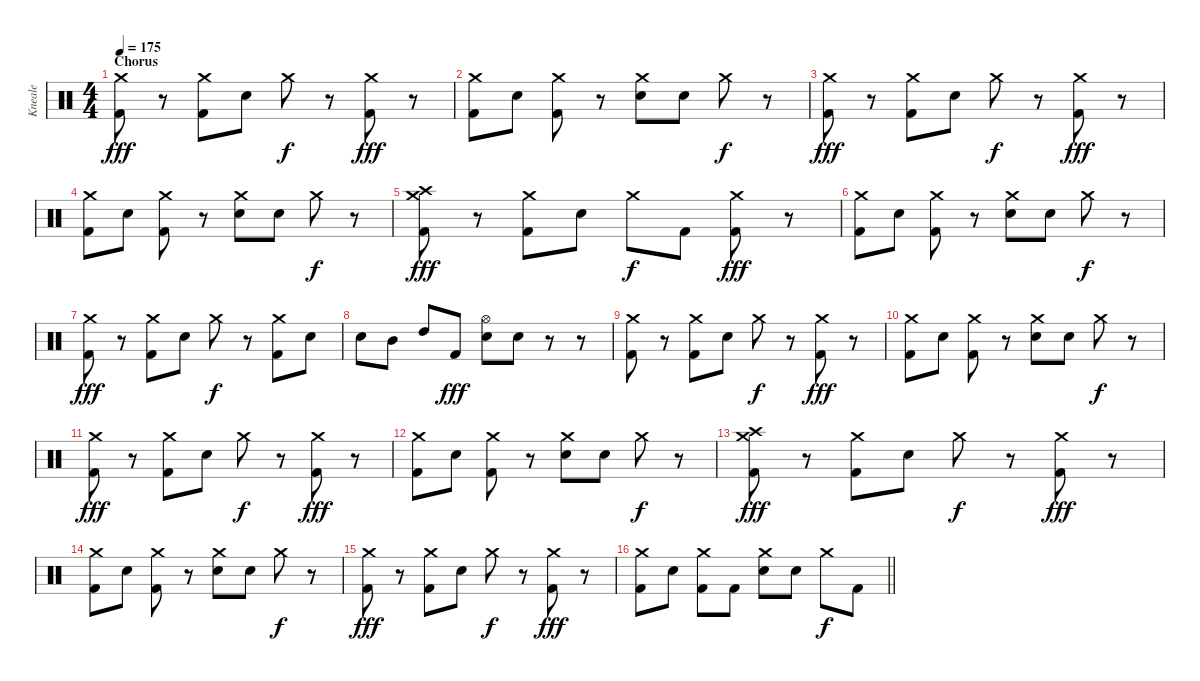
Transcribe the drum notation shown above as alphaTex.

\track ("Kneale" "Kneale") {instrument percussion}
\staff {score}
\articulation defaults
\ts (4 4)
\section ("" "Chorus")
\tempo 175
\clef neutral
\ks c
("Crash medium (hit)" "Kick (hit) 2").8{dy fff} r.8 ("Crash medium (hit)" "Kick (hit) 2").8 "Electric Snare (hit)".8 "Crash medium (hit)".8{dy f} r.8 ("Crash medium (hit)" "Kick (hit) 2").8{dy fff} r.8 |
("Crash medium (hit)" "Kick (hit) 2").8 "Electric Snare (hit)".8 ("Crash medium (hit)" "Kick (hit) 2").8 r.8 ("Crash medium (hit)" "Electric Snare (hit)").8 "Electric Snare (hit)".8 "Crash medium (hit)".8{dy f} r.8 |
("Crash medium (hit)" "Kick (hit) 2").8{dy fff} r.8 ("Crash medium (hit)" "Kick (hit) 2").8 "Electric Snare (hit)".8 "Crash medium (hit)".8{dy f} r.8 ("Crash medium (hit)" "Kick (hit) 2").8{dy fff} r.8 |
("Crash medium (hit)" "Kick (hit) 2").8 "Electric Snare (hit)".8 ("Crash medium (hit)" "Kick (hit) 2").8 r.8 ("Crash medium (hit)" "Electric Snare (hit)").8 "Electric Snare (hit)".8 "Crash medium (hit)".8{dy f} r.8 |
("Crash medium (hit)" "Crash high (hit)" "Kick (hit) 2").8{dy fff} r.8 ("Crash medium (hit)" "Kick (hit) 2").8 "Electric Snare (hit)".8 "Crash medium (hit)".8{dy f} "Kick (hit) 2".8 ("Crash medium (hit)" "Kick (hit) 2").8{dy fff} r.8 |
("Crash medium (hit)" "Kick (hit) 2").8 "Electric Snare (hit)".8 ("Crash medium (hit)" "Kick (hit) 2").8 r.8 ("Crash medium (hit)" "Electric Snare (hit)").8 "Electric Snare (hit)".8 "Crash medium (hit)".8{dy f} r.8 |
("Crash medium (hit)" "Kick (hit) 2").8{dy fff} r.8 ("Crash medium (hit)" "Kick (hit) 2").8 "Electric Snare (hit)".8 "Crash medium (hit)".8{dy f} r.8 ("Crash medium (hit)" "Kick (hit) 2").8 "Electric Snare (hit)".8 |
"Electric Snare (hit)".8 "Mid Tom (hit)".8 "High Tom (hit)".8 "Kick (hit) 2".8{dy fff} ("Hi-Hat (open)" "Electric Snare (hit)").8 "Electric Snare (hit)".8 r.8 r.8 |
("Crash medium (hit)" "Kick (hit) 2").8 r.8 ("Crash medium (hit)" "Kick (hit) 2").8 "Electric Snare (hit)".8 "Crash medium (hit)".8{dy f} r.8 ("Crash medium (hit)" "Kick (hit) 2").8{dy fff} r.8 |
("Crash medium (hit)" "Kick (hit) 2").8 "Electric Snare (hit)".8 ("Crash medium (hit)" "Kick (hit) 2").8 r.8 ("Crash medium (hit)" "Electric Snare (hit)").8 "Electric Snare (hit)".8 "Crash medium (hit)".8{dy f} r.8 |
("Crash medium (hit)" "Kick (hit) 2").8{dy fff} r.8 ("Crash medium (hit)" "Kick (hit) 2").8 "Electric Snare (hit)".8 "Crash medium (hit)".8{dy f} r.8 ("Crash medium (hit)" "Kick (hit) 2").8{dy fff} r.8 |
("Crash medium (hit)" "Kick (hit) 2").8 "Electric Snare (hit)".8 ("Crash medium (hit)" "Kick (hit) 2").8 r.8 ("Crash medium (hit)" "Electric Snare (hit)").8 "Electric Snare (hit)".8 "Crash medium (hit)".8{dy f} r.8 |
("Crash medium (hit)" "Crash high (hit)" "Kick (hit) 2").8{dy fff} r.8 ("Crash medium (hit)" "Kick (hit) 2").8 "Electric Snare (hit)".8 "Crash medium (hit)".8{dy f} r.8 ("Crash medium (hit)" "Kick (hit) 2").8{dy fff} r.8 |
("Crash medium (hit)" "Kick (hit) 2").8 "Electric Snare (hit)".8 ("Crash medium (hit)" "Kick (hit) 2").8 r.8 ("Crash medium (hit)" "Electric Snare (hit)").8 "Electric Snare (hit)".8 "Crash medium (hit)".8{dy f} r.8 |
("Crash medium (hit)" "Kick (hit) 2").8{dy fff} r.8 ("Crash medium (hit)" "Kick (hit) 2").8 "Electric Snare (hit)".8 "Crash medium (hit)".8{dy f} r.8 ("Crash medium (hit)" "Kick (hit) 2").8{dy fff} r.8 |
\barLineRight lightlight
("Crash medium (hit)" "Kick (hit) 2").8 "Electric Snare (hit)".8 ("Crash medium (hit)" "Kick (hit) 2").8 "Kick (hit) 2".8 ("Crash medium (hit)" "Electric Snare (hit)").8 "Electric Snare (hit)".8 "Crash medium (hit)".8{dy f} "Kick (hit) 2".8
